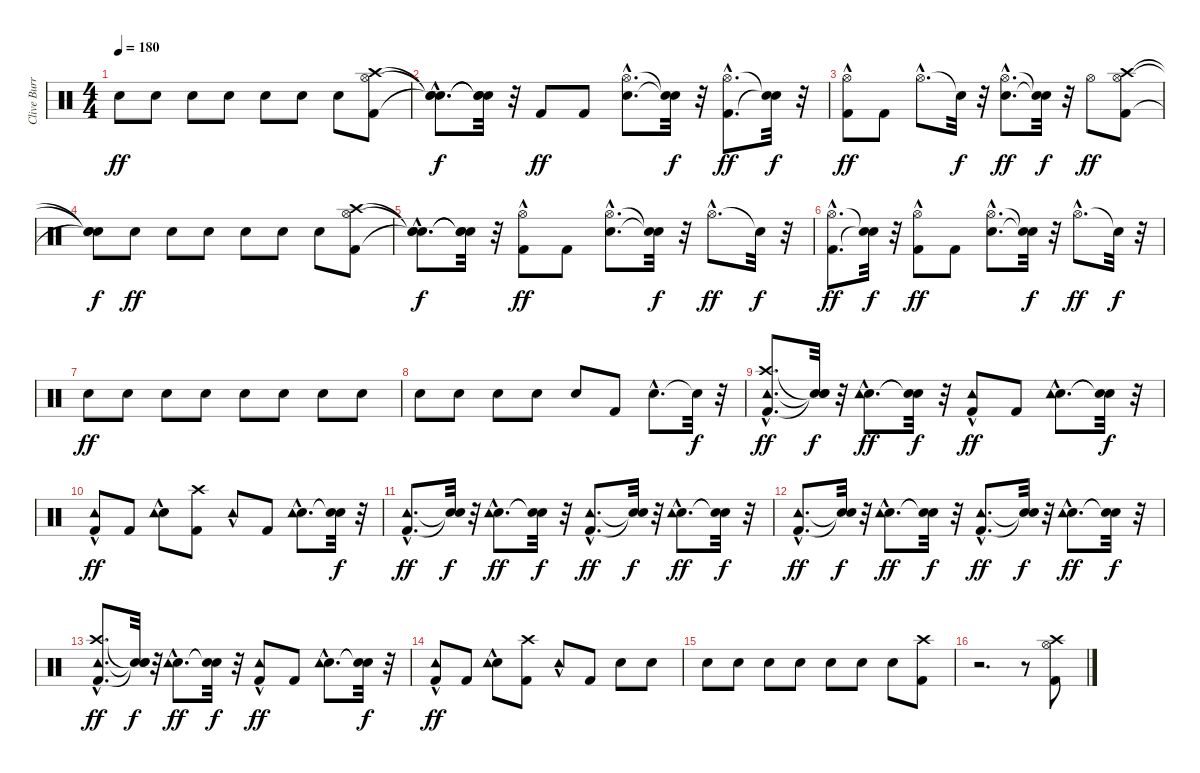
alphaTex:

\track ("Clive Burr" "Clive Burr") {instrument percussion}
\staff {score}
\articulation defaults
\ts (4 4)
\tempo 180
\clef neutral
\ks c "Snare (hit) 2".8{dy ff} "Snare (hit) 2".8 "Snare (hit) 2".8 "Snare (hit) 2".8 "Snare (hit) 2".8 "Snare (hit) 2".8 "Snare (hit) 2".8
("Kick (hit) 2" "Hi-Hat (open)" "Crash high (hit)").8 |
("Snare (hit)"{hac t} "Snare (hit)"{hac t} "Snare (hit)"{hac t}).8{d dy f} ("Snare (hit)"{t} "Snare (hit)"{t} "Snare (hit)"{t}).32 r.32 "Kick (hit) 2".8{dy ff} "Kick (hit) 2".8 ("Snare (hit) 2"{hac} "Hi-Hat (open)"{hac}).8{d} ("Snare (hit)"{t} "Snare (hit)"{t}).32{dy f} r.32 ("Kick (hit) 2"{hac} "Hi-Hat (open)"{hac}).8{d dy ff} ("Snare (hit)"{t} "Snare (hit)"{t}).32{dy f} r.32 |
("Kick (hit) 2" "Hi-Hat (open)"{hac}).8{dy ff} "Kick (hit) 2".8 "Hi-Hat (open)"{hac}.8{d} "Snare (hit)"{t}.32{dy f} r.32 ("Snare (hit) 2"{hac} "Hi-Hat (open)"{hac}).8{d dy ff} ("Snare (hit)"{t} "Snare (hit)"{t}).32{dy f} r.32 "Hi-Hat (open)".8{dy ff} ("Kick (hit) 2" "Hi-Hat (open)" "Crash high (hit)").8 |
("Snare (hit)"{t} "Snare (hit)"{t} "Snare (hit)"{t}).8{dy f} "Snare (hit) 2".8{dy ff} "Snare (hit) 2".8 "Snare (hit) 2".8 "Snare (hit) 2".8 "Snare (hit) 2".8 "Snare (hit) 2".8 ("Kick (hit) 2" "Hi-Hat (open)" "Crash high (hit)").8 |
("Snare (hit)"{hac t} "Snare (hit)"{hac t} "Snare (hit)"{hac t}).8{d dy f} ("Snare (hit)"{t} "Snare (hit)"{t} "Snare (hit)"{t}).32 r.32 ("Kick (hit) 2" "Hi-Hat (open)"{hac}).8{dy ff} "Kick (hit) 2".8 ("Snare (hit) 2"{hac} "Hi-Hat (open)"{hac}).8{d} ("Snare (hit)"{t} "Snare (hit)"{t}).32{dy f} r.32 "Hi-Hat (open)"{hac}.8{d dy ff} "Snare (hit)"{t}.32{dy f} r.32 |
("Kick (hit) 2"{hac} "Hi-Hat (open)"{hac}).8{d dy ff} ("Snare (hit)"{t} "Snare (hit)"{t}).32{dy f} r.32 ("Kick (hit) 2" "Hi-Hat (open)"{hac}).8{dy ff} "Kick (hit) 2".8 ("Snare (hit) 2"{hac} "Hi-Hat (open)"{hac}).8{d} ("Snare (hit)"{t} "Snare (hit)"{t}).32{dy f} r.32 "Hi-Hat (open)"{hac}.8{d dy ff} "Snare (hit)"{t}.32{dy f} r.32 |
"Snare (hit) 2".8{dy ff} "Snare (hit) 2".8 "Snare (hit) 2".8 "Snare (hit) 2".8 "Snare (hit) 2".8 "Snare (hit) 2".8 "Snare (hit) 2".8 "Snare (hit) 2".8 |
"Snare (hit) 2".8 "Snare (hit) 2".8 "Snare (hit) 2".8 "Snare (hit) 2".8 "Snare (hit) 2".8 "Kick (hit) 2".8 "Snare (hit) 2"{hac}.8{d} "Snare (hit)"{t}.32{dy f} r.32 |
("Kick (hit) 2"{hac} "Crash high (hit)"{hac} "Tambourine (hit)"{hac}).8{d dy ff} ("Snare (hit)"{t} "Snare (hit)"{t} "Snare (hit)"{t}).32{dy f} r.32 ("Snare (hit) 2"{hac} "Tambourine (hit)"{hac}).8{d dy ff} ("Snare (hit)"{t} "Snare (hit)"{t}).32{dy f} r.32 ("Kick (hit) 2" "Tambourine (hit)"{hac}).8{dy ff} "Kick (hit) 2".8 ("Snare (hit) 2"{hac} "Tambourine (hit)"{hac}).8{d} ("Snare (hit)"{t} "Snare (hit)"{t}).32{dy f} r.32 |
("Kick (hit) 2" "Tambourine (hit)"{hac}).8{dy ff} "Kick (hit) 2".8 ("Snare (hit) 2" "Tambourine (hit)"{hac}).8 ("Kick (hit) 2" "Crash high (hit)").8 "Tambourine (hit)"{hac}.8 "Kick (hit) 2".8 ("Snare (hit) 2"{hac} "Tambourine (hit)"{hac}).8{d} ("Snare (hit)"{t} "Snare (hit)"{t}).32{dy f} r.32 |
("Kick (hit) 2"{hac} "Tambourine (hit)"{hac}).8{d dy ff} ("Snare (hit)"{t} "Snare (hit)"{t}).32{dy f} r.32 ("Snare (hit) 2"{hac} "Tambourine (hit)"{hac}).8{d dy ff} ("Snare (hit)"{t} "Snare (hit)"{t}).32{dy f} r.32 ("Kick (hit) 2"{hac} "Tambourine (hit)"{hac}).8{d dy ff} ("Snare (hit)"{t} "Snare (hit)"{t}).32{dy f} r.32 ("Snare (hit) 2"{hac} "Tambourine (hit)"{hac}).8{d dy ff} ("Snare (hit)"{t} "Snare (hit)"{t}).32{dy f} r.32 |
("Kick (hit) 2"{hac} "Tambourine (hit)"{hac}).8{d dy ff} ("Snare (hit)"{t} "Snare (hit)"{t}).32{dy f} r.32 ("Snare (hit) 2"{hac} "Tambourine (hit)"{hac}).8{d dy ff} ("Snare (hit)"{t} "Snare (hit)"{t}).32{dy f} r.32 ("Kick (hit) 2"{hac} "Tambourine (hit)"{hac}).8{d dy ff} ("Snare (hit)"{t} "Snare (hit)"{t}).32{dy f} r.32 ("Snare (hit) 2"{hac} "Tambourine (hit)"{hac}).8{d dy ff} ("Snare (hit)"{t} "Snare (hit)"{t}).32{dy f} r.32 |
("Kick (hit) 2"{hac} "Crash high (hit)"{hac} "Tambourine (hit)"{hac}).8{d dy ff} ("Snare (hit)"{t} "Snare (hit)"{t} "Snare (hit)"{t}).32{dy f} r.32 ("Snare (hit) 2"{hac} "Tambourine (hit)"{hac}).8{d dy ff} ("Snare (hit)"{t} "Snare (hit)"{t}).32{dy f} r.32 ("Kick (hit) 2" "Tambourine (hit)"{hac}).8{dy ff} "Kick (hit) 2".8 ("Snare (hit) 2"{hac} "Tambourine (hit)"{hac}).8{d} ("Snare (hit)"{t} "Snare (hit)"{t}).32{dy f} r.32 |
("Kick (hit) 2" "Tambourine (hit)"{hac}).8{dy ff} "Kick (hit) 2".8 ("Snare (hit) 2" "Tambourine (hit)"{hac}).8 ("Kick (hit) 2" "Crash high (hit)").8 "Tambourine (hit)"{hac}.8 "Kick (hit) 2".8 "Snare (hit) 2".8 "Snare (hit) 2".8 |
"Snare (hit) 2".8 "Snare (hit) 2".8 "Snare (hit) 2".8 "Snare (hit) 2".8 "Snare (hit) 2".8 "Snare (hit) 2".8 "Snare (hit) 2".8 ("Kick (hit) 2" "Crash high (hit)").8 |
r.2{d} r.8 ("Kick (hit) 2" "Hi-Hat (open)" "Crash high (hit)").8
